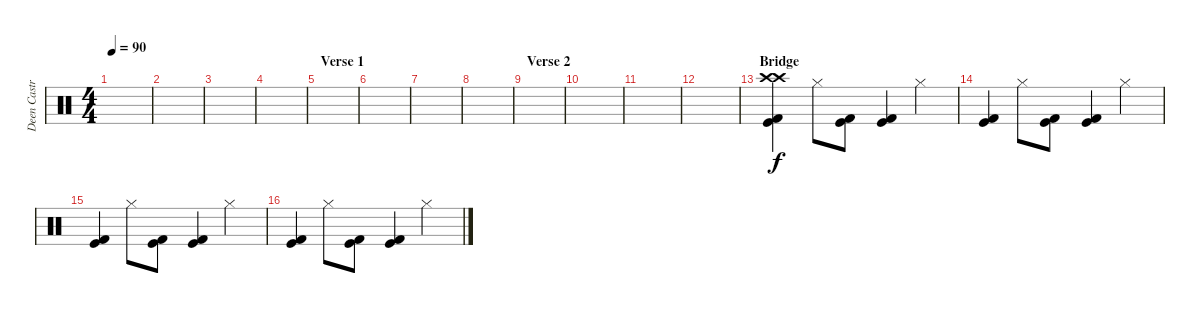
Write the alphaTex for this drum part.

\track ("Deen Castronovo" "Deen Castr") {instrument percussion}
\staff {score}
\articulation defaults
\ts (4 4)
\tempo 90
\clef neutral
\ks c
|
|
|
|
\section ("" "Verse 1")
|
|
|
|
\section ("" "Verse 2")
|
|
|
|
\section ("" "Bridge")
("Crash high (hit)" "Crash high (hit)" "Kick (hit) 2" "Kick (hit)").4 "Hi-Hat (closed)".8 ("Kick (hit) 2" "Kick (hit)").8 ("Kick (hit) 2" "Kick (hit)").4 "Hi-Hat (closed)".4 |
("Kick (hit) 2" "Kick (hit)").4 "Hi-Hat (closed)".8 ("Kick (hit) 2" "Kick (hit)").8 ("Kick (hit) 2" "Kick (hit)").4 "Hi-Hat (closed)".4 |
("Kick (hit) 2" "Kick (hit)").4 "Hi-Hat (closed)".8 ("Kick (hit) 2" "Kick (hit)").8 ("Kick (hit) 2" "Kick (hit)").4 "Hi-Hat (closed)".4 |
("Kick (hit) 2" "Kick (hit)").4 "Hi-Hat (closed)".8 ("Kick (hit) 2" "Kick (hit)").8 ("Kick (hit) 2" "Kick (hit)").4 "Hi-Hat (closed)".4
